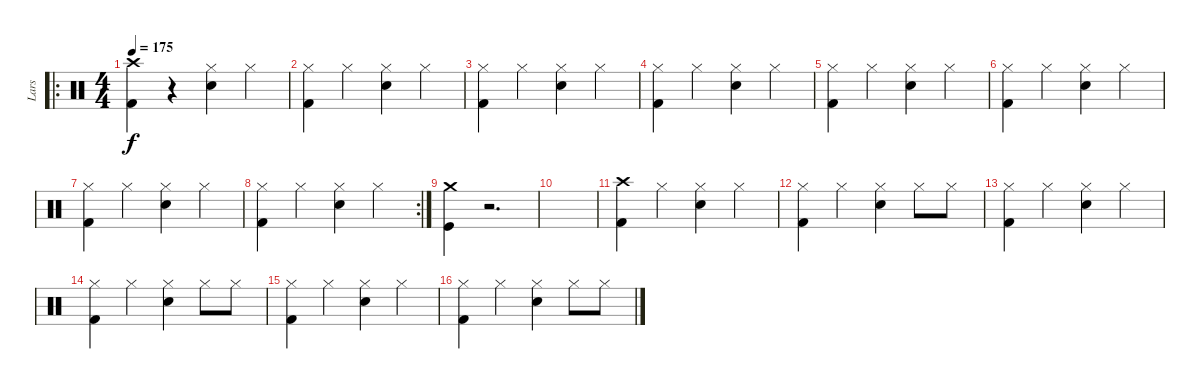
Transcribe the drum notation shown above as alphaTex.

\track ("Lars" "Lars") {instrument percussion}
\staff {score}
\articulation defaults
\ro
\ts (4 4)
\tempo 175
\clef neutral
\ks c
("Crash high (hit)" "Kick (hit) 2").4{dy f} r.4 ("Hi-Hat (closed)" "Electric Snare (hit)").4 "Hi-Hat (closed)".4 |
("Hi-Hat (closed)" "Kick (hit) 2").4 "Hi-Hat (closed)".4 ("Hi-Hat (closed)" "Electric Snare (hit)").4 "Hi-Hat (closed)".4 |
("Hi-Hat (closed)" "Kick (hit) 2").4 "Hi-Hat (closed)".4 ("Hi-Hat (closed)" "Electric Snare (hit)").4 "Hi-Hat (closed)".4 |
("Hi-Hat (closed)" "Kick (hit) 2").4 "Hi-Hat (closed)".4 ("Hi-Hat (closed)" "Electric Snare (hit)").4 "Hi-Hat (closed)".4 |
("Hi-Hat (closed)" "Kick (hit) 2").4 "Hi-Hat (closed)".4 ("Hi-Hat (closed)" "Electric Snare (hit)").4 "Hi-Hat (closed)".4 |
("Hi-Hat (closed)" "Kick (hit) 2").4 "Hi-Hat (closed)".4 ("Hi-Hat (closed)" "Electric Snare (hit)").4 "Hi-Hat (closed)".4 |
("Hi-Hat (closed)" "Kick (hit) 2").4 "Hi-Hat (closed)".4 ("Hi-Hat (closed)" "Electric Snare (hit)").4 "Hi-Hat (closed)".4 |
\rc 2
("Hi-Hat (closed)" "Kick (hit) 2").4 "Hi-Hat (closed)".4 ("Hi-Hat (closed)" "Electric Snare (hit)").4 "Hi-Hat (closed)".4 |
("Kick (hit)" "Crash medium (hit)").4 r.2{d} |
|
("Crash high (hit)" "Kick (hit) 2").4 "Hi-Hat (closed)".4 ("Hi-Hat (closed)" "Electric Snare (hit)").4 "Hi-Hat (closed)".4 |
("Hi-Hat (closed)" "Kick (hit) 2").4 "Hi-Hat (closed)".4 ("Hi-Hat (closed)" "Electric Snare (hit)").4 "Hi-Hat (closed)".8 "Hi-Hat (closed)".8 |
("Hi-Hat (closed)" "Kick (hit) 2").4 "Hi-Hat (closed)".4 ("Hi-Hat (closed)" "Electric Snare (hit)").4 "Hi-Hat (closed)".4 |
("Hi-Hat (closed)" "Kick (hit) 2").4 "Hi-Hat (closed)".4 ("Hi-Hat (closed)" "Electric Snare (hit)").4 "Hi-Hat (closed)".8 "Hi-Hat (closed)".8 |
("Hi-Hat (closed)" "Kick (hit) 2").4 "Hi-Hat (closed)".4 ("Hi-Hat (closed)" "Electric Snare (hit)").4 "Hi-Hat (closed)".4 |
("Hi-Hat (closed)" "Kick (hit) 2").4 "Hi-Hat (closed)".4 ("Hi-Hat (closed)" "Electric Snare (hit)").4 "Hi-Hat (closed)".8 "Hi-Hat (closed)".8
